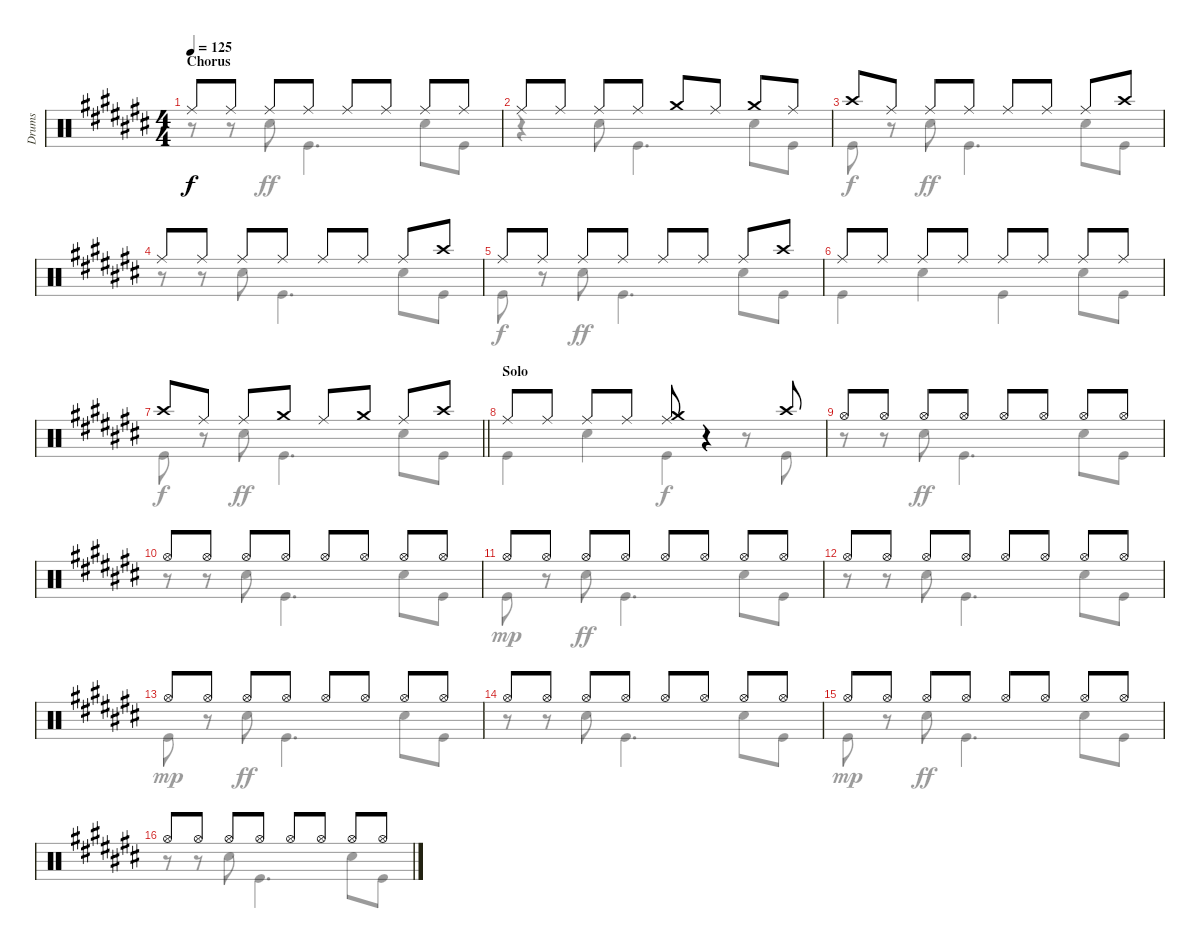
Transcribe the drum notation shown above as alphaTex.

\track ("Drums" "Drums") {instrument percussion}
\staff {score}
\articulation defaults
\voice
\ts (4 4)
\section ("" "Chorus")
\tempo 125
\clef neutral
\ks c# "Ride (middle)".8{dy f} "Ride (middle)".8 "Ride (middle)".8 "Ride (middle)".8 "Ride (middle)".8 "Ride (middle)".8 "Ride (middle)".8 "Ride (middle)".8
|
"Ride (middle)".8 "Ride (middle)".8 "Ride (middle)".8 "Ride (middle)".8 "Crash medium (hit)".8 "Ride (middle)".8 "Crash medium (hit)".8 "Ride (middle)".8 |
"Crash high (hit)".8 "Ride (middle)".8 "Ride (middle)".8 "Ride (middle)".8 "Ride (middle)".8 "Ride (middle)".8 "Ride (middle)".8 "Crash high (hit)".8 |
"Ride (middle)".8 "Ride (middle)".8 "Ride (middle)".8 "Ride (middle)".8 "Ride (middle)".8 "Ride (middle)".8 "Ride (middle)".8 "Crash high (hit)".8 |
"Ride (middle)".8 "Ride (middle)".8 "Ride (middle)".8 "Ride (middle)".8 "Ride (middle)".8 "Ride (middle)".8 "Ride (middle)".8 "Crash high (hit)".8 |
"Ride (middle)".8 "Ride (middle)".8 "Ride (middle)".8 "Ride (middle)".8 "Ride (middle)".8 "Ride (middle)".8 "Ride (middle)".8 "Ride (middle)".8 |
\barLineRight lightlight "Crash high (hit)".8 "Ride (middle)".8 "Ride (middle)".8 "Crash medium (hit)".8 "Ride (middle)".8 "Crash medium (hit)".8 "Ride (middle)".8 "Crash high (hit)".8
|
\section ("" "Solo")
"Ride (middle)".8 "Ride (middle)".8 "Ride (middle)".8 "Ride (middle)".8 ("Crash medium (hit)" "Ride (middle)").8 r.4 "Crash high (hit)".8 |
"Hi-Hat (open)".8 "Hi-Hat (open)".8 "Hi-Hat (open)".8 "Hi-Hat (open)".8 "Hi-Hat (open)".8 "Hi-Hat (open)".8 "Hi-Hat (open)".8 "Hi-Hat (open)".8 |
"Hi-Hat (open)".8 "Hi-Hat (open)".8 "Hi-Hat (open)".8 "Hi-Hat (open)".8 "Hi-Hat (open)".8 "Hi-Hat (open)".8 "Hi-Hat (open)".8 "Hi-Hat (open)".8 |
"Hi-Hat (open)".8 "Hi-Hat (open)".8 "Hi-Hat (open)".8 "Hi-Hat (open)".8 "Hi-Hat (open)".8 "Hi-Hat (open)".8 "Hi-Hat (open)".8 "Hi-Hat (open)".8 |
"Hi-Hat (open)".8 "Hi-Hat (open)".8 "Hi-Hat (open)".8 "Hi-Hat (open)".8 "Hi-Hat (open)".8 "Hi-Hat (open)".8 "Hi-Hat (open)".8 "Hi-Hat (open)".8 |
"Hi-Hat (open)".8 "Hi-Hat (open)".8 "Hi-Hat (open)".8 "Hi-Hat (open)".8 "Hi-Hat (open)".8 "Hi-Hat (open)".8 "Hi-Hat (open)".8 "Hi-Hat (open)".8 |
"Hi-Hat (open)".8 "Hi-Hat (open)".8 "Hi-Hat (open)".8 "Hi-Hat (open)".8 "Hi-Hat (open)".8 "Hi-Hat (open)".8 "Hi-Hat (open)".8 "Hi-Hat (open)".8 |
"Hi-Hat (open)".8 "Hi-Hat (open)".8 "Hi-Hat (open)".8 "Hi-Hat (open)".8 "Hi-Hat (open)".8 "Hi-Hat (open)".8 "Hi-Hat (open)".8 "Hi-Hat (open)".8 |
"Hi-Hat (open)".8 "Hi-Hat (open)".8 "Hi-Hat (open)".8 "Hi-Hat (open)".8 "Hi-Hat (open)".8 "Hi-Hat (open)".8 "Hi-Hat (open)".8 "Hi-Hat (open)".8
\voice
\clef neutral
\ottava regular
\simile none
\ks c#
r.8{dy f} r.8 "Snare (hit) 2".8{dy ff} "Kick (hit)".4{d} "Snare (hit) 2".8 "Kick (hit)".8 |
r.4 "Snare (hit) 2".8 "Kick (hit)".4{d} "Snare (hit) 2".8 "Kick (hit)".8 |
"Kick (hit)".8{dy f} r.8 "Snare (hit) 2".8{dy ff} "Kick (hit)".4{d} "Snare (hit) 2".8 "Kick (hit)".8 |
r.8 r.8 "Snare (hit) 2".8 "Kick (hit)".4{d} "Snare (hit) 2".8 "Kick (hit)".8 |
"Kick (hit)".8{dy f} r.8 "Snare (hit) 2".8{dy ff} "Kick (hit)".4{d} "Snare (hit) 2".8 "Kick (hit)".8 |
"Kick (hit)".4 "Snare (hit) 2".4 "Kick (hit)".4 "Snare (hit) 2".8 "Kick (hit)".8 |
\barLineRight lightlight "Kick (hit)".8{dy f}
r.8 "Snare (hit) 2".8{dy ff} "Kick (hit)".4{d} "Snare (hit) 2".8 "Kick (hit)".8 |
"Kick (hit)".4 "Snare (hit) 2".4 "Kick (hit)".4{dy f} r.8 "Kick (hit)".8 |
r.8 r.8 "Snare (hit) 2".8{dy ff} "Kick (hit)".4{d} "Snare (hit) 2".8 "Kick (hit)".8 |
r.8 r.8 "Snare (hit) 2".8 "Kick (hit)".4{d} "Snare (hit) 2".8 "Kick (hit)".8 |
"Kick (hit)".8{dy mp} r.8 "Snare (hit) 2".8{dy ff} "Kick (hit)".4{d} "Snare (hit) 2".8 "Kick (hit)".8 |
r.8 r.8 "Snare (hit) 2".8 "Kick (hit)".4{d} "Snare (hit) 2".8 "Kick (hit)".8 |
"Kick (hit)".8{dy mp} r.8 "Snare (hit) 2".8{dy ff} "Kick (hit)".4{d} "Snare (hit) 2".8 "Kick (hit)".8 |
r.8 r.8 "Snare (hit) 2".8 "Kick (hit)".4{d} "Snare (hit) 2".8 "Kick (hit)".8 |
"Kick (hit)".8{dy mp} r.8 "Snare (hit) 2".8{dy ff} "Kick (hit)".4{d} "Snare (hit) 2".8 "Kick (hit)".8 |
r.8 r.8 "Snare (hit) 2".8 "Kick (hit)".4{d} "Snare (hit) 2".8 "Kick (hit)".8
